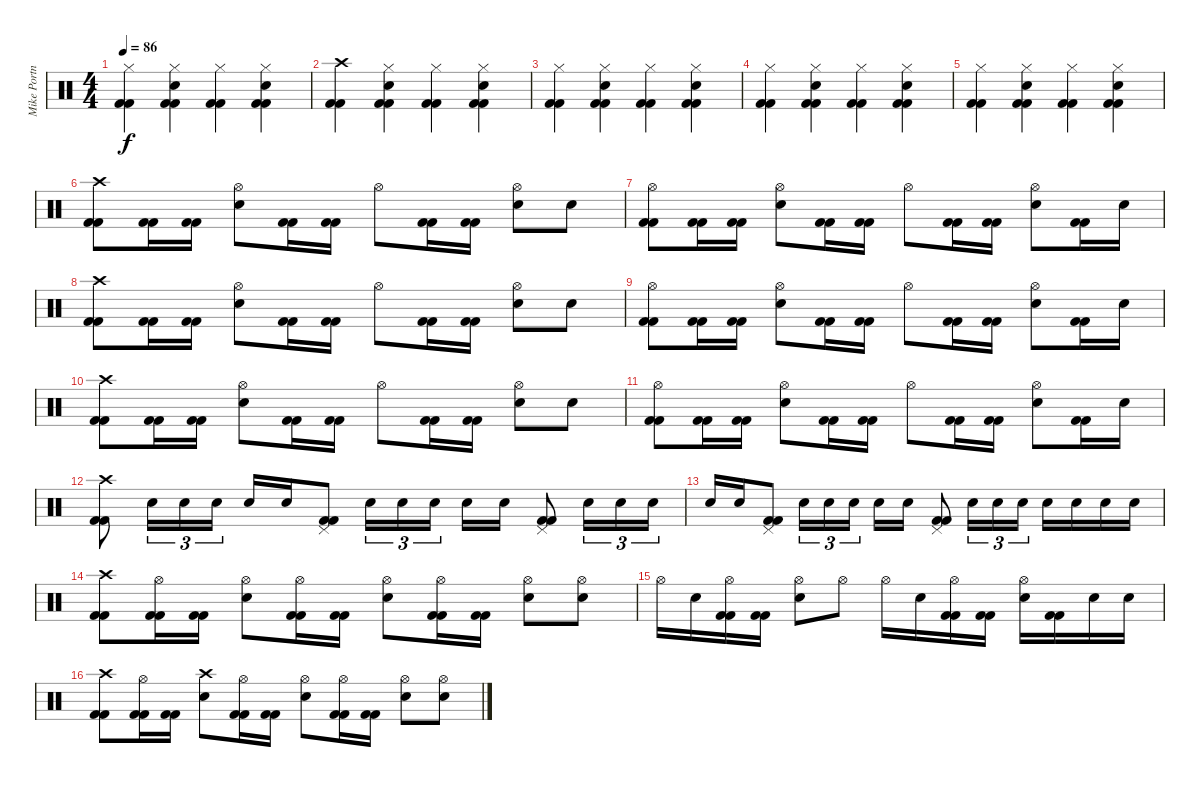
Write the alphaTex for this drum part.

\track ("Mike Portnoy - Drum" "Mike Portn") {instrument percussion}
\staff {score}
\articulation defaults
\ts (4 4)
\tempo 86
\clef neutral
\ks c
("Hi-Hat (closed)" "Kick (hit) 2" "Kick (hit) 2").4{dy f} ("Hi-Hat (closed)" "Snare (hit) 2" "Kick (hit) 2" "Kick (hit) 2").4 ("Hi-Hat (closed)" "Kick (hit) 2" "Kick (hit) 2").4 ("Hi-Hat (closed)" "Snare (hit) 2" "Kick (hit) 2" "Kick (hit) 2").4 |
("Crash high (hit)" "Kick (hit) 2" "Kick (hit) 2").4 ("Hi-Hat (closed)" "Snare (hit) 2" "Kick (hit) 2" "Kick (hit) 2").4 ("Hi-Hat (closed)" "Kick (hit) 2" "Kick (hit) 2").4 ("Hi-Hat (closed)" "Snare (hit) 2" "Kick (hit) 2" "Kick (hit) 2").4 |
("Hi-Hat (closed)" "Kick (hit) 2" "Kick (hit) 2").4 ("Hi-Hat (closed)" "Snare (hit) 2" "Kick (hit) 2" "Kick (hit) 2").4 ("Hi-Hat (closed)" "Kick (hit) 2" "Kick (hit) 2").4 ("Hi-Hat (closed)" "Snare (hit) 2" "Kick (hit) 2" "Kick (hit) 2").4 |
("Hi-Hat (closed)" "Kick (hit) 2" "Kick (hit) 2").4 ("Hi-Hat (closed)" "Snare (hit) 2" "Kick (hit) 2" "Kick (hit) 2").4 ("Hi-Hat (closed)" "Kick (hit) 2" "Kick (hit) 2").4 ("Hi-Hat (closed)" "Snare (hit) 2" "Kick (hit) 2" "Kick (hit) 2").4 |
("Hi-Hat (closed)" "Kick (hit) 2" "Kick (hit) 2").4 ("Hi-Hat (closed)" "Snare (hit) 2" "Kick (hit) 2" "Kick (hit) 2").4 ("Hi-Hat (closed)" "Kick (hit) 2" "Kick (hit) 2").4 ("Hi-Hat (closed)" "Snare (hit) 2" "Kick (hit) 2" "Kick (hit) 2").4 |
("Crash high (hit)" "Kick (hit) 2" "Kick (hit) 2").8 ("Kick (hit) 2" "Kick (hit) 2").16 ("Kick (hit) 2" "Kick (hit) 2").16 ("Hi-Hat (open)" "Snare (hit) 2").8 ("Kick (hit) 2" "Kick (hit) 2").16 ("Kick (hit) 2" "Kick (hit) 2").16 "Hi-Hat (open)".8 ("Kick (hit) 2" "Kick (hit) 2").16 ("Kick (hit) 2" "Kick (hit) 2").16 ("Hi-Hat (open)" "Snare (hit) 2").8 "Snare (hit) 2".8 |
("Hi-Hat (open)" "Kick (hit) 2" "Kick (hit) 2").8 ("Kick (hit) 2" "Kick (hit) 2").16 ("Kick (hit) 2" "Kick (hit) 2").16 ("Hi-Hat (open)" "Snare (hit) 2").8 ("Kick (hit) 2" "Kick (hit) 2").16 ("Kick (hit) 2" "Kick (hit) 2").16 "Hi-Hat (open)".8 ("Kick (hit) 2" "Kick (hit) 2").16 ("Kick (hit) 2" "Kick (hit) 2").16 ("Hi-Hat (open)" "Snare (hit) 2").8 ("Kick (hit) 2" "Kick (hit) 2").16 "Snare (hit) 2".16 |
("Crash high (hit)" "Kick (hit) 2" "Kick (hit) 2").8 ("Kick (hit) 2" "Kick (hit) 2").16 ("Kick (hit) 2" "Kick (hit) 2").16 ("Hi-Hat (open)" "Snare (hit) 2").8 ("Kick (hit) 2" "Kick (hit) 2").16 ("Kick (hit) 2" "Kick (hit) 2").16 "Hi-Hat (open)".8 ("Kick (hit) 2" "Kick (hit) 2").16 ("Kick (hit) 2" "Kick (hit) 2").16 ("Hi-Hat (open)" "Snare (hit) 2").8 "Snare (hit) 2".8 |
("Hi-Hat (open)" "Kick (hit) 2" "Kick (hit) 2").8 ("Kick (hit) 2" "Kick (hit) 2").16 ("Kick (hit) 2" "Kick (hit) 2").16 ("Hi-Hat (open)" "Snare (hit) 2").8 ("Kick (hit) 2" "Kick (hit) 2").16 ("Kick (hit) 2" "Kick (hit) 2").16 "Hi-Hat (open)".8 ("Kick (hit) 2" "Kick (hit) 2").16 ("Kick (hit) 2" "Kick (hit) 2").16 ("Hi-Hat (open)" "Snare (hit) 2").8 ("Kick (hit) 2" "Kick (hit) 2").16 "Snare (hit) 2".16 |
("Crash high (hit)" "Kick (hit) 2" "Kick (hit) 2").8 ("Kick (hit) 2" "Kick (hit) 2").16 ("Kick (hit) 2" "Kick (hit) 2").16 ("Hi-Hat (open)" "Snare (hit) 2").8 ("Kick (hit) 2" "Kick (hit) 2").16 ("Kick (hit) 2" "Kick (hit) 2").16 "Hi-Hat (open)".8 ("Kick (hit) 2" "Kick (hit) 2").16 ("Kick (hit) 2" "Kick (hit) 2").16 ("Hi-Hat (open)" "Snare (hit) 2").8 "Snare (hit) 2".8 |
("Hi-Hat (open)" "Kick (hit) 2" "Kick (hit) 2").8 ("Kick (hit) 2" "Kick (hit) 2").16 ("Kick (hit) 2" "Kick (hit) 2").16 ("Hi-Hat (open)" "Snare (hit) 2").8 ("Kick (hit) 2" "Kick (hit) 2").16 ("Kick (hit) 2" "Kick (hit) 2").16 "Hi-Hat (open)".8 ("Kick (hit) 2" "Kick (hit) 2").16 ("Kick (hit) 2" "Kick (hit) 2").16 ("Hi-Hat (open)" "Snare (hit) 2").8 ("Kick (hit) 2" "Kick (hit) 2").16 "Snare (hit) 2".16 |
("Crash high (hit)" "Kick (hit) 2" "Kick (hit) 2").8 "Snare (hit) 2".16{tu (3 2)} "Snare (hit) 2".16{tu (3 2)} "Snare (hit) 2".16{tu (3 2)} "Snare (hit) 2".16 "Snare (hit) 2".16 ("Pedal Hi-Hat (hit)" "Kick (hit) 2" "Kick (hit) 2").8 "Snare (hit) 2".16{tu (3 2)} "Snare (hit) 2".16{tu (3 2)} "Snare (hit) 2".16{tu (3 2)} "Snare (hit) 2".16 "Snare (hit) 2".16 ("Pedal Hi-Hat (hit)" "Kick (hit) 2" "Kick (hit) 2").8 "Snare (hit) 2".16{tu (3 2)} "Snare (hit) 2".16{tu (3 2)} "Snare (hit) 2".16{tu (3 2)} |
"Snare (hit) 2".16 "Snare (hit) 2".16 ("Pedal Hi-Hat (hit)" "Kick (hit) 2" "Kick (hit) 2").8 "Snare (hit) 2".16{tu (3 2)} "Snare (hit) 2".16{tu (3 2)} "Snare (hit) 2".16{tu (3 2)} "Snare (hit) 2".16 "Snare (hit) 2".16 ("Pedal Hi-Hat (hit)" "Kick (hit) 2" "Kick (hit) 2").8 "Snare (hit) 2".16{tu (3 2)} "Snare (hit) 2".16{tu (3 2)} "Snare (hit) 2".16{tu (3 2)} "Snare (hit) 2".16 "Snare (hit) 2".16 "Snare (hit) 2".16 "Snare (hit) 2".16 |
("Crash high (hit)" "Kick (hit) 2" "Kick (hit) 2").8 ("Hi-Hat (open)" "Kick (hit) 2" "Kick (hit) 2").16 ("Kick (hit) 2" "Kick (hit) 2").16 ("Hi-Hat (open)" "Snare (hit) 2").8 ("Hi-Hat (open)" "Kick (hit) 2" "Kick (hit) 2").16 ("Kick (hit) 2" "Kick (hit) 2").16 ("Hi-Hat (open)" "Snare (hit) 2").8 ("Hi-Hat (open)" "Kick (hit) 2" "Kick (hit) 2").16 ("Kick (hit) 2" "Kick (hit) 2").16 ("Hi-Hat (open)" "Snare (hit) 2").8 ("Hi-Hat (open)" "Snare (hit) 2").8 |
"Hi-Hat (open)".16 "Snare (hit) 2".16 ("Hi-Hat (open)" "Kick (hit) 2" "Kick (hit) 2").16 ("Kick (hit) 2" "Kick (hit) 2").16 ("Hi-Hat (open)" "Snare (hit) 2").8 "Hi-Hat (open)".8 "Hi-Hat (open)".16 "Snare (hit) 2".16 ("Hi-Hat (open)" "Kick (hit) 2" "Kick (hit) 2").16 ("Kick (hit) 2" "Kick (hit) 2").16 ("Hi-Hat (open)" "Snare (hit) 2").16 ("Kick (hit) 2" "Kick (hit) 2").16 "Snare (hit) 2".16 "Snare (hit) 2".16 |
("Crash high (hit)" "Kick (hit) 2" "Kick (hit) 2").8 ("Hi-Hat (open)" "Kick (hit) 2" "Kick (hit) 2").16 ("Kick (hit) 2" "Kick (hit) 2").16 ("Crash high (hit)" "Snare (hit) 2").8 ("Hi-Hat (open)" "Kick (hit) 2" "Kick (hit) 2").16 ("Kick (hit) 2" "Kick (hit) 2").16 ("Hi-Hat (open)" "Snare (hit) 2").8 ("Hi-Hat (open)" "Kick (hit) 2" "Kick (hit) 2").16 ("Kick (hit) 2" "Kick (hit) 2").16 ("Hi-Hat (open)" "Snare (hit) 2").8 ("Hi-Hat (open)" "Snare (hit) 2").8
